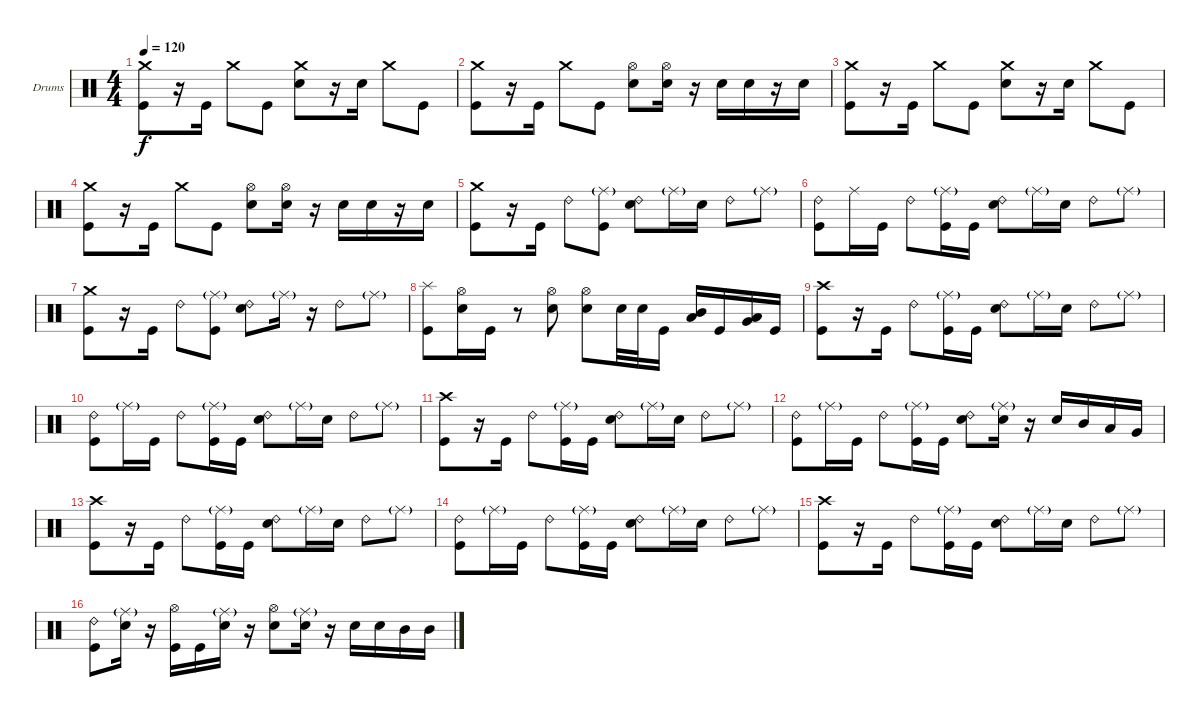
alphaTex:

\bracketExtendMode groupsimilarinstruments
\firstSystemTrackNameOrientation horizontal
\otherSystemsTrackNameOrientation horizontal
\track ("Drumkit" "Drums") {instrument percussion}
\staff {score}
\articulation defaults
\ts (4 4)
\tempo 120
\clef neutral
\ks c
("Crash medium (hit)" "Kick (hit)").8{dy f} r.16 "Kick (hit)".16 "Crash medium (hit)".8 "Kick (hit)".8 ("Crash medium (hit)" "Snare (hit) 2").8 r.16 "Snare (hit) 2".16 "Crash medium (hit)".8 "Kick (hit)".8 |
("Crash medium (hit)" "Kick (hit)").8 r.16 "Kick (hit)".16 "Crash medium (hit)".8 "Kick (hit)".8 ("Snare (hit) 2" "Hi-Hat (open)").8 ("Snare (hit) 2" "Hi-Hat (open)").16 r.16 "Snare (hit) 2".16 "Snare (hit) 2".16 r.16 "Snare (hit) 2".16 |
("Crash medium (hit)" "Kick (hit)").8 r.16 "Kick (hit)".16 "Crash medium (hit)".8 "Kick (hit)".8 ("Crash medium (hit)" "Snare (hit) 2").8 r.16 "Snare (hit) 2".16 "Crash medium (hit)".8 "Kick (hit)".8 |
("Crash medium (hit)" "Kick (hit)").8 r.16 "Kick (hit)".16 "Crash medium (hit)".8 "Kick (hit)".8 ("Snare (hit) 2" "Hi-Hat (open)").8 ("Snare (hit) 2" "Hi-Hat (open)").16 r.16 "Snare (hit) 2".16 "Snare (hit) 2".16 r.16 "Snare (hit) 2".16 |
("Crash medium (hit)" "Kick (hit)").8 r.16 "Kick (hit)".16 "Ride (bell) 2".8 ("Ride (middle)"{g} "Kick (hit)").8 ("Ride (bell) 2" "Snare (hit) 2").8 "Ride (middle)"{g}.16 "Snare (hit) 2".16 "Ride (bell) 2".8 "Ride (middle)"{g}.8 |
("Kick (hit)" "Ride (bell) 2").8 "Ride (middle)".16 "Kick (hit)".16 "Ride (bell) 2".8 ("Ride (middle)"{g} "Kick (hit)").16 "Kick (hit)".16 ("Ride (bell) 2" "Snare (hit) 2").8 "Ride (middle)"{g}.16 "Snare (hit) 2".16 "Ride (bell) 2".8 "Ride (middle)"{g}.8 |
("Crash medium (hit)" "Kick (hit)").8 r.16 "Kick (hit)".16 "Ride (bell) 2".8 ("Ride (middle)"{g} "Kick (hit)").8 ("Ride (bell) 2" "Snare (hit) 2").8 "Ride (middle)"{g}.16 r.16 "Ride (bell) 2".8 "Ride (middle)"{g}.8 |
("Kick (hit)" "Splash (hit)").8 ("Hi-Hat (open)" "Snare (hit) 2").16 "Kick (hit)".16 r.8 ("Hi-Hat (open)" "Snare (hit) 2").8 ("Hi-Hat (open)" "Snare (hit) 2").8 "Snare (hit) 2".32 "Snare (hit) 2".32 "Kick (hit)".16 ("Mid Tom (hit)" "Low Tom (hit)").16 "Kick (hit)".16 ("Low Tom (hit)" "Very Low Tom (hit)").16 "Kick (hit)".16 |
("Crash high (hit)" "Kick (hit)").8 r.16 "Kick (hit)".16 "Ride (bell) 2".8 ("Kick (hit)" "Ride (middle)"{g}).16 "Kick (hit)".16 ("Ride (bell) 2" "Snare (hit) 2").8 "Ride (middle)"{g}.16 "Snare (hit) 2".16 "Ride (bell) 2".8 "Ride (middle)"{g}.8 |
("Kick (hit)" "Ride (bell) 2").8 "Ride (middle)"{g}.16 "Kick (hit)".16 "Ride (bell) 2".8 ("Kick (hit)" "Ride (middle)"{g}).16 "Kick (hit)".16 ("Ride (bell) 2" "Snare (hit) 2").8 "Ride (middle)"{g}.16 "Snare (hit) 2".16 "Ride (bell) 2".8 "Ride (middle)"{g}.8 |
("Crash high (hit)" "Kick (hit)").8 r.16 "Kick (hit)".16 "Ride (bell) 2".8 ("Kick (hit)" "Ride (middle)"{g}).16 "Kick (hit)".16 ("Ride (bell) 2" "Snare (hit) 2").8 "Ride (middle)"{g}.16 "Snare (hit) 2".16 "Ride (bell) 2".8 "Ride (middle)"{g}.8 |
("Kick (hit)" "Ride (bell) 2").8 "Ride (middle)"{g}.16 "Kick (hit)".16 "Ride (bell) 2".8 ("Kick (hit)" "Ride (middle)"{g}).16 "Kick (hit)".16 ("Ride (bell) 2" "Snare (hit) 2").8 ("Ride (middle)"{g} "Snare (hit) 2").16 r.16 "Snare (hit) 2".16 "Mid Tom (hit)".16 "Low Tom (hit)".16 "Very Low Tom (hit)".16 |
("Crash high (hit)" "Kick (hit)").8 r.16 "Kick (hit)".16 "Ride (bell) 2".8 ("Kick (hit)" "Ride (middle)"{g}).16 "Kick (hit)".16 ("Ride (bell) 2" "Snare (hit) 2").8 "Ride (middle)"{g}.16 "Snare (hit) 2".16 "Ride (bell) 2".8 "Ride (middle)"{g}.8 |
("Kick (hit)" "Ride (bell) 2").8 "Ride (middle)"{g}.16 "Kick (hit)".16 "Ride (bell) 2".8 ("Kick (hit)" "Ride (middle)"{g}).16 "Kick (hit)".16 ("Ride (bell) 2" "Snare (hit) 2").8 "Ride (middle)"{g}.16 "Snare (hit) 2".16 "Ride (bell) 2".8 "Ride (middle)"{g}.8 |
("Crash high (hit)" "Kick (hit)").8 r.16 "Kick (hit)".16 "Ride (bell) 2".8 ("Kick (hit)" "Ride (middle)"{g}).16 "Kick (hit)".16 ("Ride (bell) 2" "Snare (hit) 2").8 "Ride (middle)"{g}.16 "Snare (hit) 2".16 "Ride (bell) 2".8 "Ride (middle)"{g}.8 |
("Kick (hit)" "Ride (bell) 2").8 ("Ride (middle)"{g} "Snare (hit) 2").16 r.16 ("Kick (hit)" "Hi-Hat (open)").16 "Kick (hit)".16 ("Ride (middle)"{g} "Snare (hit) 2").16 r.16 ("Snare (hit) 2" "Hi-Hat (open)").8 ("Ride (middle)"{g} "Snare (hit) 2").16 r.16 "Snare (hit) 2".16 "Snare (hit) 2".16 "Mid Tom (hit)".16 "Mid Tom (hit)".16
